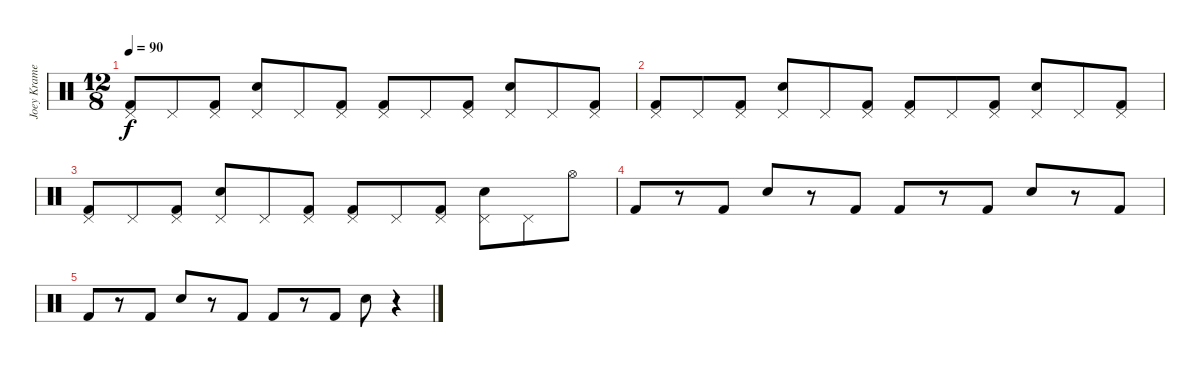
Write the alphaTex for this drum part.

\track ("Joey Kramer" "Joey Krame") {instrument percussion}
\staff {score}
\articulation defaults
\ts (12 8)
\tempo 90
\clef neutral
\ks c
("Pedal Hi-Hat (hit)" "Kick (hit) 2").8{dy f} "Pedal Hi-Hat (hit)".8 ("Pedal Hi-Hat (hit)" "Kick (hit) 2").8 ("Pedal Hi-Hat (hit)" "Snare (hit) 2").8 "Pedal Hi-Hat (hit)".8 ("Pedal Hi-Hat (hit)" "Kick (hit) 2").8 ("Pedal Hi-Hat (hit)" "Kick (hit) 2").8 "Pedal Hi-Hat (hit)".8 ("Pedal Hi-Hat (hit)" "Kick (hit) 2").8 ("Pedal Hi-Hat (hit)" "Snare (hit) 2").8 "Pedal Hi-Hat (hit)".8 ("Pedal Hi-Hat (hit)" "Kick (hit) 2").8 |
("Pedal Hi-Hat (hit)" "Kick (hit) 2").8 "Pedal Hi-Hat (hit)".8 ("Pedal Hi-Hat (hit)" "Kick (hit) 2").8 ("Pedal Hi-Hat (hit)" "Snare (hit) 2").8 "Pedal Hi-Hat (hit)".8 ("Pedal Hi-Hat (hit)" "Kick (hit) 2").8 ("Pedal Hi-Hat (hit)" "Kick (hit) 2").8 "Pedal Hi-Hat (hit)".8 ("Pedal Hi-Hat (hit)" "Kick (hit) 2").8 ("Pedal Hi-Hat (hit)" "Snare (hit) 2").8 "Pedal Hi-Hat (hit)".8 ("Pedal Hi-Hat (hit)" "Kick (hit) 2").8 |
("Pedal Hi-Hat (hit)" "Kick (hit) 2").8 "Pedal Hi-Hat (hit)".8 ("Pedal Hi-Hat (hit)" "Kick (hit) 2").8 ("Pedal Hi-Hat (hit)" "Snare (hit) 2").8 "Pedal Hi-Hat (hit)".8 ("Pedal Hi-Hat (hit)" "Kick (hit) 2").8 ("Pedal Hi-Hat (hit)" "Kick (hit) 2").8 "Pedal Hi-Hat (hit)".8 ("Pedal Hi-Hat (hit)" "Kick (hit) 2").8 ("Pedal Hi-Hat (hit)" "Snare (hit) 2").8 "Pedal Hi-Hat (hit)".8 "Hi-Hat (open)".8 |
"Kick (hit) 2".8 r.8 "Kick (hit) 2".8 "Snare (hit) 2".8 r.8 "Kick (hit) 2".8 "Kick (hit) 2".8 r.8 "Kick (hit) 2".8 "Snare (hit) 2".8 r.8 "Kick (hit) 2".8 |
"Kick (hit) 2".8 r.8 "Kick (hit) 2".8 "Snare (hit) 2".8 r.8 "Kick (hit) 2".8 "Kick (hit) 2".8 r.8 "Kick (hit) 2".8 "Snare (hit) 2".8 r.4
